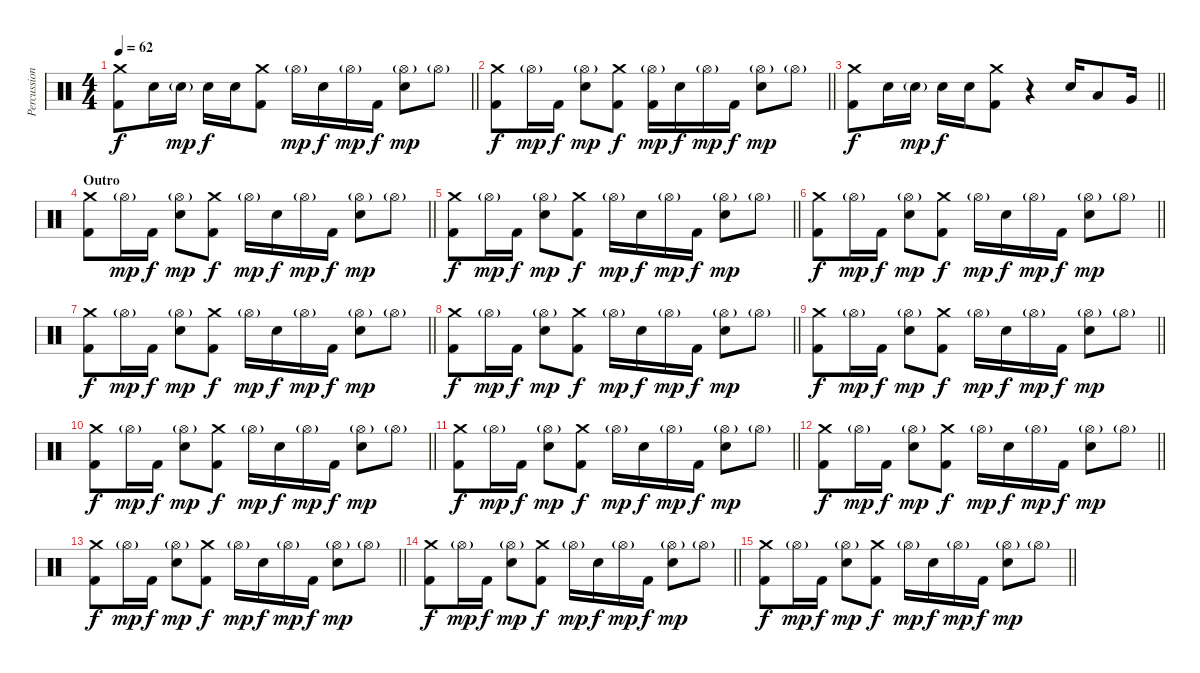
\track ("Percussion" "Percussion") {instrument percussion}
\staff {score}
\articulation defaults
\ts (4 4)
\tempo 62
\clef neutral
\barLineRight lightlight
\ks c
("Crash medium (hit)" "Kick (hit) 2").8{dy f} "Electric Snare (hit)".16 "Electric Snare (hit)"{g}.16{dy mp} "Electric Snare (hit)".16{dy f} "Electric Snare (hit)".16 ("Crash medium (hit)" "Kick (hit) 2").8 "Hi-Hat (open)"{g}.16{dy mp} "Electric Snare (hit)".16{dy f} "Hi-Hat (open)"{g}.16{dy mp} "Kick (hit) 2".16{dy f} ("Hi-Hat (open)"{g} "Electric Snare (hit)").8{dy mp} "Hi-Hat (open)"{g}.8 |
\barLineRight lightlight
("Crash medium (hit)" "Kick (hit) 2").8{dy f} "Hi-Hat (open)"{g}.16{dy mp} "Kick (hit) 2".16{dy f} ("Hi-Hat (open)"{g} "Electric Snare (hit)").8{dy mp} ("Crash medium (hit)" "Kick (hit) 2").8{dy f} ("Hi-Hat (open)"{g} "Kick (hit) 2").16{dy mp} "Electric Snare (hit)".16{dy f} "Hi-Hat (open)"{g}.16{dy mp} "Kick (hit) 2".16{dy f} ("Hi-Hat (open)"{g} "Electric Snare (hit)").8{dy mp} "Hi-Hat (open)"{g}.8 |
\barLineRight lightlight
("Crash medium (hit)" "Kick (hit) 2").8{dy f} "Electric Snare (hit)".16 "Electric Snare (hit)"{g}.16{dy mp} "Electric Snare (hit)".16{dy f} "Electric Snare (hit)".16 ("Crash medium (hit)" "Kick (hit) 2").8 r.4 "Electric Snare (hit)".16 "Low Tom (hit)".8 "Very Low Tom (hit)".16 |
\section ("" "Outro")
\barLineRight lightlight
("Crash medium (hit)" "Kick (hit) 2").8 "Hi-Hat (open)"{g}.16{dy mp} "Kick (hit) 2".16{dy f} ("Hi-Hat (open)"{g} "Electric Snare (hit)").8{dy mp} ("Crash medium (hit)" "Kick (hit) 2").8{dy f} "Hi-Hat (open)"{g}.16{dy mp} "Electric Snare (hit)".16{dy f} "Hi-Hat (open)"{g}.16{dy mp} "Kick (hit) 2".16{dy f} ("Hi-Hat (open)"{g} "Electric Snare (hit)").8{dy mp} "Hi-Hat (open)"{g}.8 |
\barLineRight lightlight
("Crash medium (hit)" "Kick (hit) 2").8{dy f} "Hi-Hat (open)"{g}.16{dy mp} "Kick (hit) 2".16{dy f} ("Hi-Hat (open)"{g} "Electric Snare (hit)").8{dy mp} ("Crash medium (hit)" "Kick (hit) 2").8{dy f} "Hi-Hat (open)"{g}.16{dy mp} "Electric Snare (hit)".16{dy f} "Hi-Hat (open)"{g}.16{dy mp} "Kick (hit) 2".16{dy f} ("Hi-Hat (open)"{g} "Electric Snare (hit)").8{dy mp} "Hi-Hat (open)"{g}.8 |
\barLineRight lightlight
("Crash medium (hit)" "Kick (hit) 2").8{dy f} "Hi-Hat (open)"{g}.16{dy mp} "Kick (hit) 2".16{dy f} ("Hi-Hat (open)"{g} "Electric Snare (hit)").8{dy mp} ("Crash medium (hit)" "Kick (hit) 2").8{dy f} "Hi-Hat (open)"{g}.16{dy mp} "Electric Snare (hit)".16{dy f} "Hi-Hat (open)"{g}.16{dy mp} "Kick (hit) 2".16{dy f} ("Hi-Hat (open)"{g} "Electric Snare (hit)").8{dy mp} "Hi-Hat (open)"{g}.8 |
\barLineRight lightlight
("Crash medium (hit)" "Kick (hit) 2").8{dy f} "Hi-Hat (open)"{g}.16{dy mp} "Kick (hit) 2".16{dy f} ("Hi-Hat (open)"{g} "Electric Snare (hit)").8{dy mp} ("Crash medium (hit)" "Kick (hit) 2").8{dy f} "Hi-Hat (open)"{g}.16{dy mp} "Electric Snare (hit)".16{dy f} "Hi-Hat (open)"{g}.16{dy mp} "Kick (hit) 2".16{dy f} ("Hi-Hat (open)"{g} "Electric Snare (hit)").8{dy mp} "Hi-Hat (open)"{g}.8 |
\barLineRight lightlight
("Crash medium (hit)" "Kick (hit) 2").8{dy f} "Hi-Hat (open)"{g}.16{dy mp} "Kick (hit) 2".16{dy f} ("Hi-Hat (open)"{g} "Electric Snare (hit)").8{dy mp} ("Crash medium (hit)" "Kick (hit) 2").8{dy f} "Hi-Hat (open)"{g}.16{dy mp} "Electric Snare (hit)".16{dy f} "Hi-Hat (open)"{g}.16{dy mp} "Kick (hit) 2".16{dy f} ("Hi-Hat (open)"{g} "Electric Snare (hit)").8{dy mp} "Hi-Hat (open)"{g}.8 |
\barLineRight lightlight
("Crash medium (hit)" "Kick (hit) 2").8{dy f} "Hi-Hat (open)"{g}.16{dy mp} "Kick (hit) 2".16{dy f} ("Hi-Hat (open)"{g} "Electric Snare (hit)").8{dy mp} ("Crash medium (hit)" "Kick (hit) 2").8{dy f} "Hi-Hat (open)"{g}.16{dy mp} "Electric Snare (hit)".16{dy f} "Hi-Hat (open)"{g}.16{dy mp} "Kick (hit) 2".16{dy f} ("Hi-Hat (open)"{g} "Electric Snare (hit)").8{dy mp} "Hi-Hat (open)"{g}.8 |
\barLineRight lightlight
("Crash medium (hit)" "Kick (hit) 2").8{dy f} "Hi-Hat (open)"{g}.16{dy mp} "Kick (hit) 2".16{dy f} ("Hi-Hat (open)"{g} "Electric Snare (hit)").8{dy mp} ("Crash medium (hit)" "Kick (hit) 2").8{dy f} "Hi-Hat (open)"{g}.16{dy mp} "Electric Snare (hit)".16{dy f} "Hi-Hat (open)"{g}.16{dy mp} "Kick (hit) 2".16{dy f} ("Hi-Hat (open)"{g} "Electric Snare (hit)").8{dy mp} "Hi-Hat (open)"{g}.8 |
\barLineRight lightlight
("Crash medium (hit)" "Kick (hit) 2").8{dy f} "Hi-Hat (open)"{g}.16{dy mp} "Kick (hit) 2".16{dy f} ("Hi-Hat (open)"{g} "Electric Snare (hit)").8{dy mp} ("Crash medium (hit)" "Kick (hit) 2").8{dy f} "Hi-Hat (open)"{g}.16{dy mp} "Electric Snare (hit)".16{dy f} "Hi-Hat (open)"{g}.16{dy mp} "Kick (hit) 2".16{dy f} ("Hi-Hat (open)"{g} "Electric Snare (hit)").8{dy mp} "Hi-Hat (open)"{g}.8 |
\barLineRight lightlight
("Crash medium (hit)" "Kick (hit) 2").8{dy f} "Hi-Hat (open)"{g}.16{dy mp} "Kick (hit) 2".16{dy f} ("Hi-Hat (open)"{g} "Electric Snare (hit)").8{dy mp} ("Crash medium (hit)" "Kick (hit) 2").8{dy f} "Hi-Hat (open)"{g}.16{dy mp} "Electric Snare (hit)".16{dy f} "Hi-Hat (open)"{g}.16{dy mp} "Kick (hit) 2".16{dy f} ("Hi-Hat (open)"{g} "Electric Snare (hit)").8{dy mp} "Hi-Hat (open)"{g}.8 |
\barLineRight lightlight
("Crash medium (hit)" "Kick (hit) 2").8{dy f} "Hi-Hat (open)"{g}.16{dy mp} "Kick (hit) 2".16{dy f} ("Hi-Hat (open)"{g} "Electric Snare (hit)").8{dy mp} ("Crash medium (hit)" "Kick (hit) 2").8{dy f} "Hi-Hat (open)"{g}.16{dy mp} "Electric Snare (hit)".16{dy f} "Hi-Hat (open)"{g}.16{dy mp} "Kick (hit) 2".16{dy f} ("Hi-Hat (open)"{g} "Electric Snare (hit)").8{dy mp} "Hi-Hat (open)"{g}.8 |
\barLineRight lightlight
("Crash medium (hit)" "Kick (hit) 2").8{dy f} "Hi-Hat (open)"{g}.16{dy mp} "Kick (hit) 2".16{dy f} ("Hi-Hat (open)"{g} "Electric Snare (hit)").8{dy mp} ("Crash medium (hit)" "Kick (hit) 2").8{dy f} "Hi-Hat (open)"{g}.16{dy mp} "Electric Snare (hit)".16{dy f} "Hi-Hat (open)"{g}.16{dy mp} "Kick (hit) 2".16{dy f} ("Hi-Hat (open)"{g} "Electric Snare (hit)").8{dy mp} "Hi-Hat (open)"{g}.8 |
\barLineRight lightlight
("Crash medium (hit)" "Kick (hit) 2").8{dy f} "Hi-Hat (open)"{g}.16{dy mp} "Kick (hit) 2".16{dy f} ("Hi-Hat (open)"{g} "Electric Snare (hit)").8{dy mp} ("Crash medium (hit)" "Kick (hit) 2").8{dy f} "Hi-Hat (open)"{g}.16{dy mp} "Electric Snare (hit)".16{dy f} "Hi-Hat (open)"{g}.16{dy mp} "Kick (hit) 2".16{dy f} ("Hi-Hat (open)"{g} "Electric Snare (hit)").8{dy mp} "Hi-Hat (open)"{g}.8
